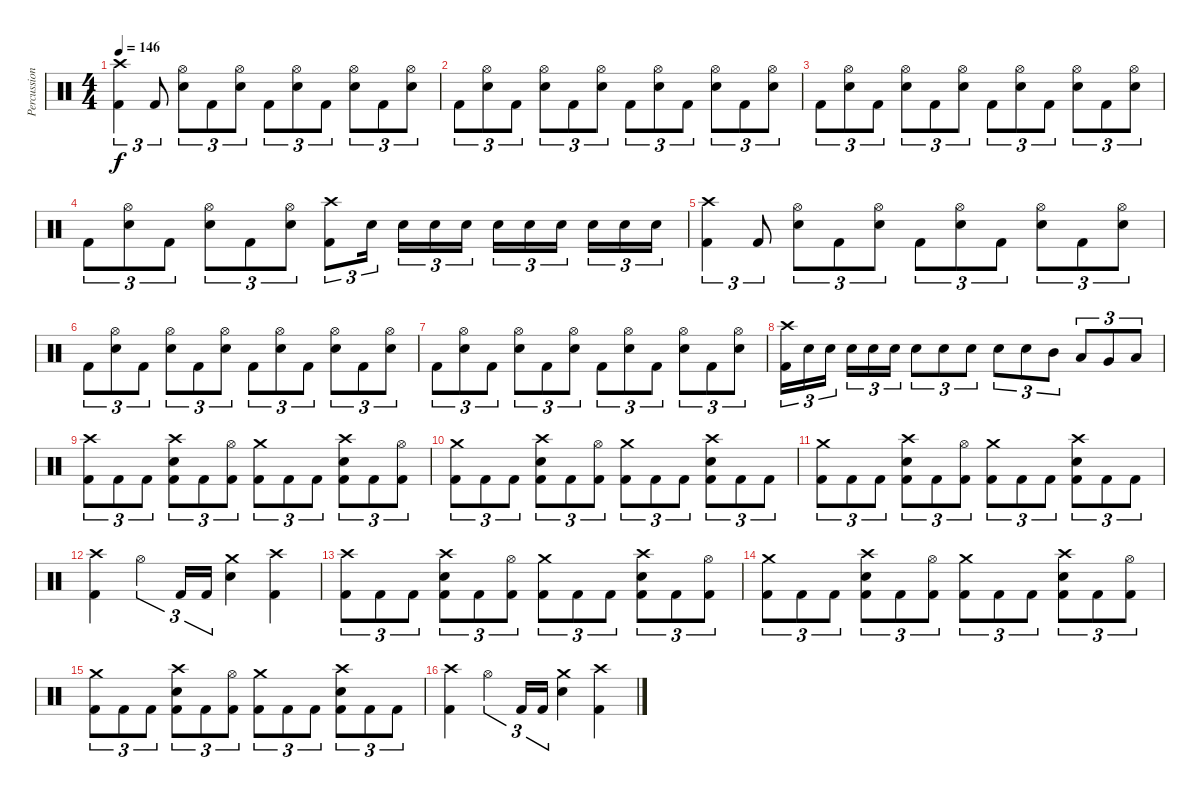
\track ("Percussion" "Percussion") {instrument percussion}
\staff {score}
\articulation defaults
\ts (4 4)
\tempo 146
\clef neutral
\ks c
("Crash high (hit)" "Kick (hit) 2").4{tu (3 2) dy f volume 16 balance 8} "Kick (hit) 2".8{tu (3 2)} ("Hi-Hat (open)" "Snare (hit) 2").8{tu (3 2)} "Kick (hit) 2".8{tu (3 2)} ("Hi-Hat (open)" "Snare (hit) 2").8{tu (3 2)} "Kick (hit) 2".8{tu (3 2)} ("Hi-Hat (open)" "Snare (hit) 2").8{tu (3 2)} "Kick (hit) 2".8{tu (3 2)} ("Hi-Hat (open)" "Snare (hit) 2").8{tu (3 2)} "Kick (hit) 2".8{tu (3 2)} ("Hi-Hat (open)" "Snare (hit) 2").8{tu (3 2)} |
"Kick (hit) 2".8{tu (3 2)} ("Hi-Hat (open)" "Snare (hit) 2").8{tu (3 2)} "Kick (hit) 2".8{tu (3 2)} ("Hi-Hat (open)" "Snare (hit) 2").8{tu (3 2)} "Kick (hit) 2".8{tu (3 2)} ("Hi-Hat (open)" "Snare (hit) 2").8{tu (3 2)} "Kick (hit) 2".8{tu (3 2)} ("Hi-Hat (open)" "Snare (hit) 2").8{tu (3 2)} "Kick (hit) 2".8{tu (3 2)} ("Hi-Hat (open)" "Snare (hit) 2").8{tu (3 2)} "Kick (hit) 2".8{tu (3 2)} ("Hi-Hat (open)" "Snare (hit) 2").8{tu (3 2)} |
"Kick (hit) 2".8{tu (3 2)} ("Hi-Hat (open)" "Snare (hit) 2").8{tu (3 2)} "Kick (hit) 2".8{tu (3 2)} ("Hi-Hat (open)" "Snare (hit) 2").8{tu (3 2)} "Kick (hit) 2".8{tu (3 2)} ("Hi-Hat (open)" "Snare (hit) 2").8{tu (3 2)} "Kick (hit) 2".8{tu (3 2)} ("Hi-Hat (open)" "Snare (hit) 2").8{tu (3 2)} "Kick (hit) 2".8{tu (3 2)} ("Hi-Hat (open)" "Snare (hit) 2").8{tu (3 2)} "Kick (hit) 2".8{tu (3 2)} ("Hi-Hat (open)" "Snare (hit) 2").8{tu (3 2)} |
"Kick (hit) 2".8{tu (3 2)} ("Hi-Hat (open)" "Snare (hit) 2").8{tu (3 2)} "Kick (hit) 2".8{tu (3 2)} ("Hi-Hat (open)" "Snare (hit) 2").8{tu (3 2)} "Kick (hit) 2".8{tu (3 2)} ("Hi-Hat (open)" "Snare (hit) 2").8{tu (3 2)} ("Crash high (hit)" "Kick (hit) 2").8{tu (3 2)} "Snare (hit) 2".16{tu (3 2) beam splitsecondary} "Snare (hit) 2".16{tu (3 2)} "Snare (hit) 2".16{tu (3 2)} "Snare (hit) 2".16{tu (3 2)} "Snare (hit) 2".16{tu (3 2)} "Snare (hit) 2".16{tu (3 2)} "Snare (hit) 2".16{tu (3 2) beam splitsecondary} "Snare (hit) 2".16{tu (3 2)} "Snare (hit) 2".16{tu (3 2)} "Snare (hit) 2".16{tu (3 2)} |
("Crash high (hit)" "Kick (hit) 2").4{tu (3 2)} "Kick (hit) 2".8{tu (3 2)} ("Hi-Hat (open)" "Snare (hit) 2").8{tu (3 2)} "Kick (hit) 2".8{tu (3 2)} ("Hi-Hat (open)" "Snare (hit) 2").8{tu (3 2)} "Kick (hit) 2".8{tu (3 2)} ("Hi-Hat (open)" "Snare (hit) 2").8{tu (3 2)} "Kick (hit) 2".8{tu (3 2)} ("Hi-Hat (open)" "Snare (hit) 2").8{tu (3 2)} "Kick (hit) 2".8{tu (3 2)} ("Hi-Hat (open)" "Snare (hit) 2").8{tu (3 2)} |
"Kick (hit) 2".8{tu (3 2)} ("Hi-Hat (open)" "Snare (hit) 2").8{tu (3 2)} "Kick (hit) 2".8{tu (3 2)} ("Hi-Hat (open)" "Snare (hit) 2").8{tu (3 2)} "Kick (hit) 2".8{tu (3 2)} ("Hi-Hat (open)" "Snare (hit) 2").8{tu (3 2)} "Kick (hit) 2".8{tu (3 2)} ("Hi-Hat (open)" "Snare (hit) 2").8{tu (3 2)} "Kick (hit) 2".8{tu (3 2)} ("Hi-Hat (open)" "Snare (hit) 2").8{tu (3 2)} "Kick (hit) 2".8{tu (3 2)} ("Hi-Hat (open)" "Snare (hit) 2").8{tu (3 2)} |
"Kick (hit) 2".8{tu (3 2)} ("Hi-Hat (open)" "Snare (hit) 2").8{tu (3 2)} "Kick (hit) 2".8{tu (3 2)} ("Hi-Hat (open)" "Snare (hit) 2").8{tu (3 2)} "Kick (hit) 2".8{tu (3 2)} ("Hi-Hat (open)" "Snare (hit) 2").8{tu (3 2)} "Kick (hit) 2".8{tu (3 2)} ("Hi-Hat (open)" "Snare (hit) 2").8{tu (3 2)} "Kick (hit) 2".8{tu (3 2)} ("Hi-Hat (open)" "Snare (hit) 2").8{tu (3 2)} "Kick (hit) 2".8{tu (3 2)} ("Hi-Hat (open)" "Snare (hit) 2").8{tu (3 2)} |
("Crash high (hit)" "Kick (hit) 2").16{tu (3 2)} "Snare (hit) 2".16{tu (3 2)} "Snare (hit) 2".16{tu (3 2) beam splitsecondary} "Snare (hit) 2".16{tu (3 2)} "Snare (hit) 2".16{tu (3 2)} "Snare (hit) 2".16{tu (3 2)} "Snare (hit) 2".8{tu (3 2)} "Snare (hit) 2".8{tu (3 2)} "Snare (hit) 2".8{tu (3 2)} "Snare (hit) 2".8{tu (3 2)} "Snare (hit) 2".8{tu (3 2)} "Mid Tom (hit)".8{tu (3 2)} "Low Tom (hit)".8{tu (3 2)} "Very Low Tom (hit)".8{tu (3 2)} "Low Floor Tom (hit)".8{tu (3 2)} |
("Crash high (hit)" "Kick (hit) 2").8{tu (3 2)} "Kick (hit) 2".8{tu (3 2)} "Kick (hit) 2".8{tu (3 2)} ("Crash high (hit)" "Snare (hit) 2" "Kick (hit) 2").8{tu (3 2)} "Kick (hit) 2".8{tu (3 2)} ("Hi-Hat (open)" "Kick (hit) 2").8{tu (3 2)} ("Crash medium (hit)" "Kick (hit) 2").8{tu (3 2)} "Kick (hit) 2".8{tu (3 2)} "Kick (hit) 2".8{tu (3 2)} ("Crash high (hit)" "Snare (hit) 2" "Kick (hit) 2").8{tu (3 2)} "Kick (hit) 2".8{tu (3 2)} ("Hi-Hat (open)" "Kick (hit) 2").8{tu (3 2)} |
("Crash medium (hit)" "Kick (hit) 2").8{tu (3 2)} "Kick (hit) 2".8{tu (3 2)} "Kick (hit) 2".8{tu (3 2)} ("Crash high (hit)" "Snare (hit) 2" "Kick (hit) 2").8{tu (3 2)} "Kick (hit) 2".8{tu (3 2)} ("Hi-Hat (open)" "Kick (hit) 2").8{tu (3 2)} ("Crash medium (hit)" "Kick (hit) 2").8{tu (3 2)} "Kick (hit) 2".8{tu (3 2)} "Kick (hit) 2".8{tu (3 2)} ("Crash high (hit)" "Snare (hit) 2" "Kick (hit) 2").8{tu (3 2)} "Kick (hit) 2".8{tu (3 2)} "Kick (hit) 2".8{tu (3 2)} |
("Crash medium (hit)" "Kick (hit) 2").8{tu (3 2)} "Kick (hit) 2".8{tu (3 2)} "Kick (hit) 2".8{tu (3 2)} ("Crash high (hit)" "Snare (hit) 2" "Kick (hit) 2").8{tu (3 2)} "Kick (hit) 2".8{tu (3 2)} ("Hi-Hat (open)" "Kick (hit) 2").8{tu (3 2)} ("Crash medium (hit)" "Kick (hit) 2").8{tu (3 2)} "Kick (hit) 2".8{tu (3 2)} "Kick (hit) 2".8{tu (3 2)} ("Crash high (hit)" "Snare (hit) 2" "Kick (hit) 2").8{tu (3 2)} "Kick (hit) 2".8{tu (3 2)} "Kick (hit) 2".8{tu (3 2)} |
("Crash high (hit)" "Kick (hit) 2").4 "Hi-Hat (open)".4{tu (3 2)} "Kick (hit) 2".16{tu (3 2)} "Kick (hit) 2".16{tu (3 2)} ("Crash medium (hit)" "Snare (hit) 2").4 ("Crash high (hit)" "Kick (hit) 2").4 |
("Crash high (hit)" "Kick (hit) 2").8{tu (3 2)} "Kick (hit) 2".8{tu (3 2)} "Kick (hit) 2".8{tu (3 2)} ("Crash high (hit)" "Snare (hit) 2" "Kick (hit) 2").8{tu (3 2)} "Kick (hit) 2".8{tu (3 2)} ("Hi-Hat (open)" "Kick (hit) 2").8{tu (3 2)} ("Crash medium (hit)" "Kick (hit) 2").8{tu (3 2)} "Kick (hit) 2".8{tu (3 2)} "Kick (hit) 2".8{tu (3 2)} ("Crash high (hit)" "Snare (hit) 2" "Kick (hit) 2").8{tu (3 2)} "Kick (hit) 2".8{tu (3 2)} ("Hi-Hat (open)" "Kick (hit) 2").8{tu (3 2)} |
("Crash medium (hit)" "Kick (hit) 2").8{tu (3 2)} "Kick (hit) 2".8{tu (3 2)} "Kick (hit) 2".8{tu (3 2)} ("Crash high (hit)" "Snare (hit) 2" "Kick (hit) 2").8{tu (3 2)} "Kick (hit) 2".8{tu (3 2)} ("Hi-Hat (open)" "Kick (hit) 2").8{tu (3 2)} ("Crash medium (hit)" "Kick (hit) 2").8{tu (3 2)} "Kick (hit) 2".8{tu (3 2)} "Kick (hit) 2".8{tu (3 2)} ("Crash high (hit)" "Snare (hit) 2" "Kick (hit) 2").8{tu (3 2)} "Kick (hit) 2".8{tu (3 2)} ("Hi-Hat (open)" "Kick (hit) 2").8{tu (3 2)} |
("Crash medium (hit)" "Kick (hit) 2").8{tu (3 2)} "Kick (hit) 2".8{tu (3 2)} "Kick (hit) 2".8{tu (3 2)} ("Crash high (hit)" "Snare (hit) 2" "Kick (hit) 2").8{tu (3 2)} "Kick (hit) 2".8{tu (3 2)} ("Hi-Hat (open)" "Kick (hit) 2").8{tu (3 2)} ("Crash medium (hit)" "Kick (hit) 2").8{tu (3 2)} "Kick (hit) 2".8{tu (3 2)} "Kick (hit) 2".8{tu (3 2)} ("Crash high (hit)" "Snare (hit) 2" "Kick (hit) 2").8{tu (3 2)} "Kick (hit) 2".8{tu (3 2)} "Kick (hit) 2".8{tu (3 2)} |
("Crash high (hit)" "Kick (hit) 2").4 "Hi-Hat (open)".4{tu (3 2)} "Kick (hit) 2".16{tu (3 2)} "Kick (hit) 2".16{tu (3 2)} ("Crash medium (hit)" "Snare (hit) 2").4 ("Crash high (hit)" "Kick (hit) 2").4
